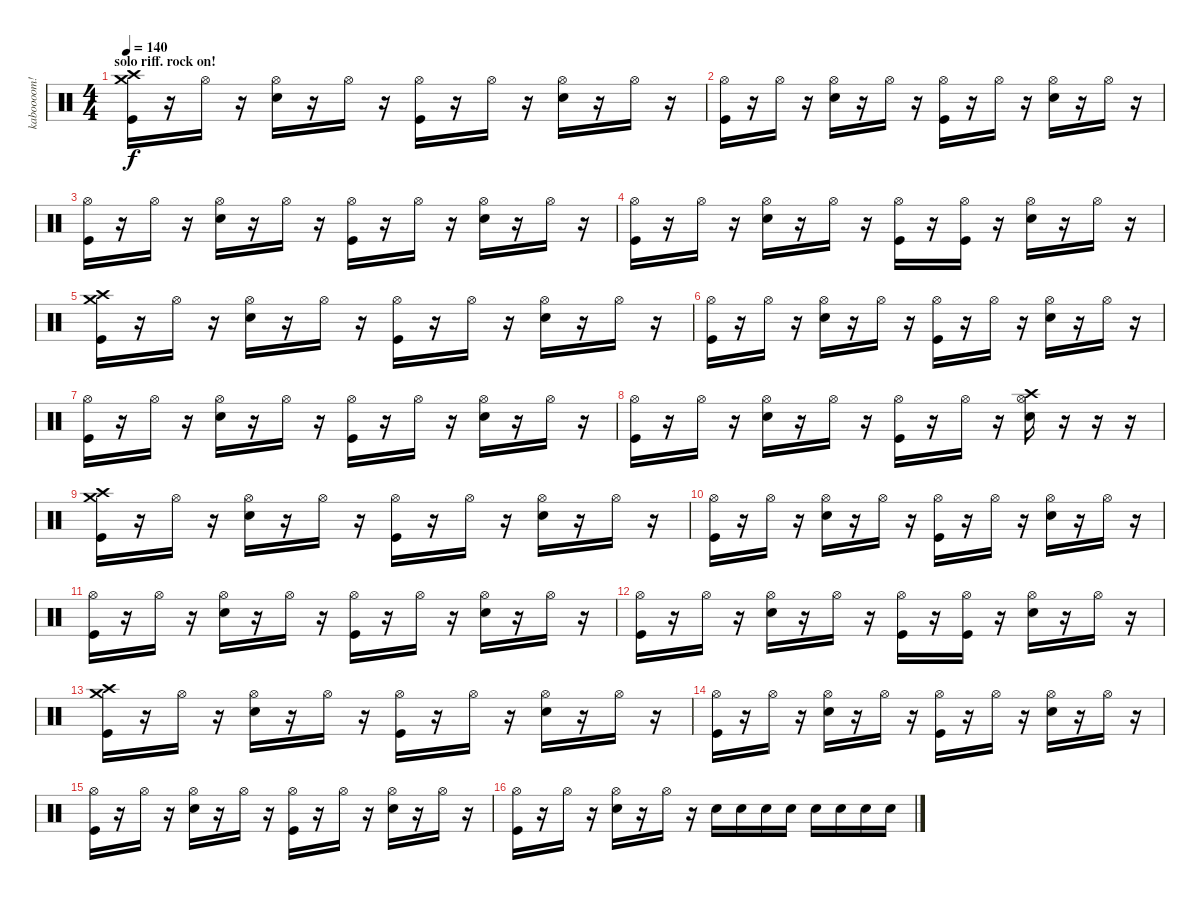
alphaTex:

\track ("kaboooom!" "kaboooom!") {instrument percussion}
\staff {score}
\articulation defaults
\ts (4 4)
\section ("" "solo riff. rock on!")
\tempo 140
\clef neutral
\ks c
("Crash high (hit)" "Crash medium (hit)" "Kick (hit)").16{dy f} r.16 "Hi-Hat (open)".16 r.16 ("Hi-Hat (open)" "Electric Snare (hit)").16 r.16 "Hi-Hat (open)".16 r.16 ("Hi-Hat (open)" "Kick (hit)").16 r.16 "Hi-Hat (open)".16 r.16 ("Hi-Hat (open)" "Electric Snare (hit)").16 r.16 "Hi-Hat (open)".16 r.16 |
("Hi-Hat (open)" "Kick (hit)").16 r.16 "Hi-Hat (open)".16 r.16 ("Hi-Hat (open)" "Electric Snare (hit)").16 r.16 "Hi-Hat (open)".16 r.16 ("Hi-Hat (open)" "Kick (hit)").16 r.16 "Hi-Hat (open)".16 r.16 ("Hi-Hat (open)" "Electric Snare (hit)").16 r.16 "Hi-Hat (open)".16 r.16 |
("Hi-Hat (open)" "Kick (hit)").16 r.16 "Hi-Hat (open)".16 r.16 ("Hi-Hat (open)" "Electric Snare (hit)").16 r.16 "Hi-Hat (open)".16 r.16 ("Hi-Hat (open)" "Kick (hit)").16 r.16 "Hi-Hat (open)".16 r.16 ("Hi-Hat (open)" "Electric Snare (hit)").16 r.16 "Hi-Hat (open)".16 r.16 |
("Hi-Hat (open)" "Kick (hit)").16 r.16 "Hi-Hat (open)".16 r.16 ("Hi-Hat (open)" "Electric Snare (hit)").16 r.16 "Hi-Hat (open)".16 r.16 ("Hi-Hat (open)" "Kick (hit)").16 r.16 ("Hi-Hat (open)" "Kick (hit)").16 r.16 ("Hi-Hat (open)" "Electric Snare (hit)").16 r.16 "Hi-Hat (open)".16 r.16 |
("Crash high (hit)" "Crash medium (hit)" "Kick (hit)").16 r.16 "Hi-Hat (open)".16 r.16 ("Hi-Hat (open)" "Electric Snare (hit)").16 r.16 "Hi-Hat (open)".16 r.16 ("Hi-Hat (open)" "Kick (hit)").16 r.16 "Hi-Hat (open)".16 r.16 ("Hi-Hat (open)" "Electric Snare (hit)").16 r.16 "Hi-Hat (open)".16 r.16 |
("Hi-Hat (open)" "Kick (hit)").16 r.16 "Hi-Hat (open)".16 r.16 ("Hi-Hat (open)" "Electric Snare (hit)").16 r.16 "Hi-Hat (open)".16 r.16 ("Hi-Hat (open)" "Kick (hit)").16 r.16 "Hi-Hat (open)".16 r.16 ("Hi-Hat (open)" "Electric Snare (hit)").16 r.16 "Hi-Hat (open)".16 r.16 |
("Hi-Hat (open)" "Kick (hit)").16 r.16 "Hi-Hat (open)".16 r.16 ("Hi-Hat (open)" "Electric Snare (hit)").16 r.16 "Hi-Hat (open)".16 r.16 ("Hi-Hat (open)" "Kick (hit)").16 r.16 "Hi-Hat (open)".16 r.16 ("Hi-Hat (open)" "Electric Snare (hit)").16 r.16 "Hi-Hat (open)".16 r.16 |
("Hi-Hat (open)" "Kick (hit)").16 r.16 "Hi-Hat (open)".16 r.16 ("Hi-Hat (open)" "Electric Snare (hit)").16 r.16 "Hi-Hat (open)".16 r.16 ("Hi-Hat (open)" "Kick (hit)").16 r.16 "Hi-Hat (open)".16 r.16 ("Crash high (hit)" "Hi-Hat (open)" "Electric Snare (hit)").16 r.16 r.16 r.16 |
("Crash high (hit)" "Crash medium (hit)" "Kick (hit)").16 r.16 "Hi-Hat (open)".16 r.16 ("Hi-Hat (open)" "Electric Snare (hit)").16 r.16 "Hi-Hat (open)".16 r.16 ("Hi-Hat (open)" "Kick (hit)").16 r.16 "Hi-Hat (open)".16 r.16 ("Hi-Hat (open)" "Electric Snare (hit)").16 r.16 "Hi-Hat (open)".16 r.16 |
("Hi-Hat (open)" "Kick (hit)").16 r.16 "Hi-Hat (open)".16 r.16 ("Hi-Hat (open)" "Electric Snare (hit)").16 r.16 "Hi-Hat (open)".16 r.16 ("Hi-Hat (open)" "Kick (hit)").16 r.16 "Hi-Hat (open)".16 r.16 ("Hi-Hat (open)" "Electric Snare (hit)").16 r.16 "Hi-Hat (open)".16 r.16 |
("Hi-Hat (open)" "Kick (hit)").16 r.16 "Hi-Hat (open)".16 r.16 ("Hi-Hat (open)" "Electric Snare (hit)").16 r.16 "Hi-Hat (open)".16 r.16 ("Hi-Hat (open)" "Kick (hit)").16 r.16 "Hi-Hat (open)".16 r.16 ("Hi-Hat (open)" "Electric Snare (hit)").16 r.16 "Hi-Hat (open)".16 r.16 |
("Hi-Hat (open)" "Kick (hit)").16 r.16 "Hi-Hat (open)".16 r.16 ("Hi-Hat (open)" "Electric Snare (hit)").16 r.16 "Hi-Hat (open)".16 r.16 ("Hi-Hat (open)" "Kick (hit)").16 r.16 ("Hi-Hat (open)" "Kick (hit)").16 r.16 ("Hi-Hat (open)" "Electric Snare (hit)").16 r.16 "Hi-Hat (open)".16 r.16 |
("Crash high (hit)" "Crash medium (hit)" "Kick (hit)").16 r.16 "Hi-Hat (open)".16 r.16 ("Hi-Hat (open)" "Electric Snare (hit)").16 r.16 "Hi-Hat (open)".16 r.16 ("Hi-Hat (open)" "Kick (hit)").16 r.16 "Hi-Hat (open)".16 r.16 ("Hi-Hat (open)" "Electric Snare (hit)").16 r.16 "Hi-Hat (open)".16 r.16 |
("Hi-Hat (open)" "Kick (hit)").16 r.16 "Hi-Hat (open)".16 r.16 ("Hi-Hat (open)" "Electric Snare (hit)").16 r.16 "Hi-Hat (open)".16 r.16 ("Hi-Hat (open)" "Kick (hit)").16 r.16 "Hi-Hat (open)".16 r.16 ("Hi-Hat (open)" "Electric Snare (hit)").16 r.16 "Hi-Hat (open)".16 r.16 |
("Hi-Hat (open)" "Kick (hit)").16 r.16 "Hi-Hat (open)".16 r.16 ("Hi-Hat (open)" "Electric Snare (hit)").16 r.16 "Hi-Hat (open)".16 r.16 ("Hi-Hat (open)" "Kick (hit)").16 r.16 "Hi-Hat (open)".16 r.16 ("Hi-Hat (open)" "Electric Snare (hit)").16 r.16 "Hi-Hat (open)".16 r.16 |
("Hi-Hat (open)" "Kick (hit)").16 r.16 "Hi-Hat (open)".16 r.16 ("Hi-Hat (open)" "Electric Snare (hit)").16 r.16 "Hi-Hat (open)".16 r.16 "Electric Snare (hit)".16 "Electric Snare (hit)".16 "Electric Snare (hit)".16 "Electric Snare (hit)".16 "Electric Snare (hit)".16 "Electric Snare (hit)".16 "Electric Snare (hit)".16 "Electric Snare (hit)".16
